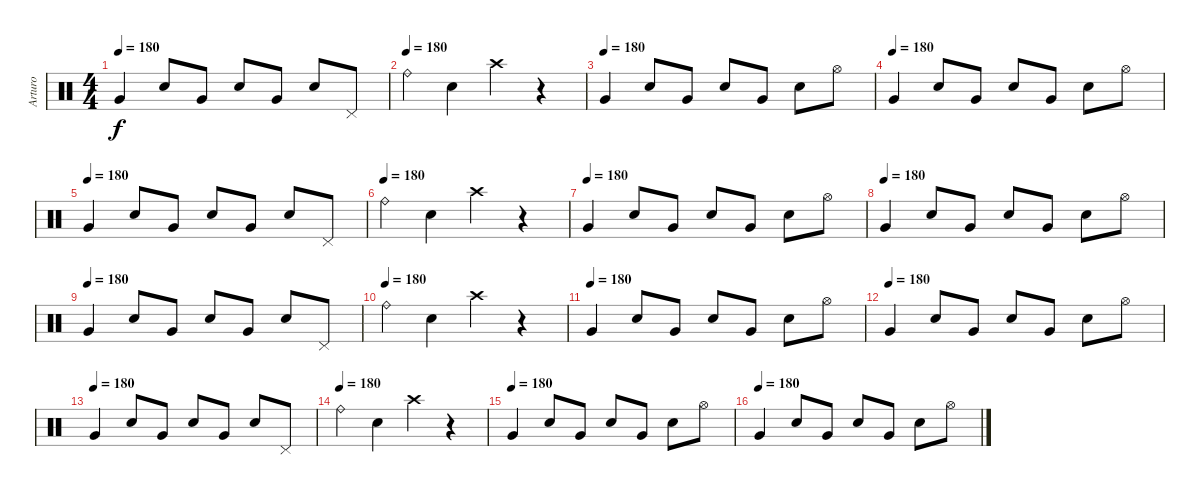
\track ("Arturo" "Arturo") {instrument percussion}
\staff {score}
\articulation defaults
\ts (4 4)
\tempo 180
\clef neutral
\ks c "Very Low Tom (hit)".4{dy f} "Electric Snare (hit)".8 "Very Low Tom (hit)".8 "Electric Snare (hit)".8 "Very Low Tom (hit)".8 "Electric Snare (hit)".8 "Pedal Hi-Hat (hit)".8
|
\tempo (180)
"Ride (bell)".4 "Electric Snare (hit)".4 "Crash high (hit)".4 r.4 |
\tempo (180)
"Very Low Tom (hit)".4 "Electric Snare (hit)".8 "Very Low Tom (hit)".8 "Electric Snare (hit)".8 "Very Low Tom (hit)".8 "Electric Snare (hit)".8 "Hi-Hat (open)".8 |
\tempo (180)
"Very Low Tom (hit)".4 "Electric Snare (hit)".8 "Very Low Tom (hit)".8 "Electric Snare (hit)".8 "Very Low Tom (hit)".8 "Electric Snare (hit)".8 "Hi-Hat (open)".8 |
\tempo (180)
"Very Low Tom (hit)".4 "Electric Snare (hit)".8 "Very Low Tom (hit)".8 "Electric Snare (hit)".8 "Very Low Tom (hit)".8 "Electric Snare (hit)".8 "Pedal Hi-Hat (hit)".8 |
\tempo (180)
"Ride (bell)".4 "Electric Snare (hit)".4 "Crash high (hit)".4 r.4 |
\tempo (180)
"Very Low Tom (hit)".4 "Electric Snare (hit)".8 "Very Low Tom (hit)".8 "Electric Snare (hit)".8 "Very Low Tom (hit)".8 "Electric Snare (hit)".8 "Hi-Hat (open)".8 |
\tempo (180)
"Very Low Tom (hit)".4 "Electric Snare (hit)".8 "Very Low Tom (hit)".8 "Electric Snare (hit)".8 "Very Low Tom (hit)".8 "Electric Snare (hit)".8 "Hi-Hat (open)".8 |
\tempo (180)
"Very Low Tom (hit)".4 "Electric Snare (hit)".8 "Very Low Tom (hit)".8 "Electric Snare (hit)".8 "Very Low Tom (hit)".8 "Electric Snare (hit)".8 "Pedal Hi-Hat (hit)".8 |
\tempo (180)
"Ride (bell)".4 "Electric Snare (hit)".4 "Crash high (hit)".4 r.4 |
\tempo (180)
"Very Low Tom (hit)".4 "Electric Snare (hit)".8 "Very Low Tom (hit)".8 "Electric Snare (hit)".8 "Very Low Tom (hit)".8 "Electric Snare (hit)".8 "Hi-Hat (open)".8 |
\tempo (180)
"Very Low Tom (hit)".4 "Electric Snare (hit)".8 "Very Low Tom (hit)".8 "Electric Snare (hit)".8 "Very Low Tom (hit)".8 "Electric Snare (hit)".8 "Hi-Hat (open)".8 |
\tempo (180)
"Very Low Tom (hit)".4 "Electric Snare (hit)".8 "Very Low Tom (hit)".8 "Electric Snare (hit)".8 "Very Low Tom (hit)".8 "Electric Snare (hit)".8 "Pedal Hi-Hat (hit)".8 |
\tempo (180)
"Ride (bell)".4 "Electric Snare (hit)".4 "Crash high (hit)".4 r.4 |
\tempo (180)
"Very Low Tom (hit)".4 "Electric Snare (hit)".8 "Very Low Tom (hit)".8 "Electric Snare (hit)".8 "Very Low Tom (hit)".8 "Electric Snare (hit)".8 "Hi-Hat (open)".8 |
\tempo (180)
"Very Low Tom (hit)".4 "Electric Snare (hit)".8 "Very Low Tom (hit)".8 "Electric Snare (hit)".8 "Very Low Tom (hit)".8 "Electric Snare (hit)".8 "Hi-Hat (open)".8
